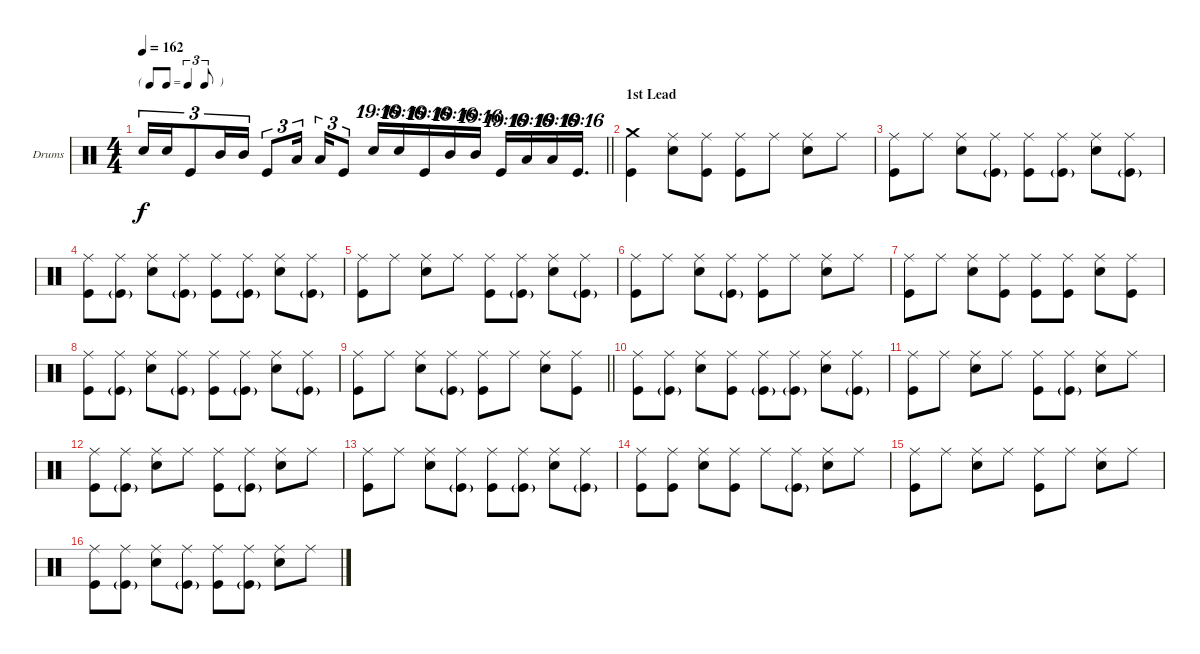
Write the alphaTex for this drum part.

\bracketExtendMode groupsimilarinstruments
\firstSystemTrackNameOrientation horizontal
\otherSystemsTrackNameOrientation horizontal
\track ("Drumkit" "Drums") {instrument percussion}
\staff {score}
\articulation defaults
\ts (4 4)
\tf triplet8th
\tempo 162
\clef neutral
\barLineRight lightlight
\ks c "Snare (hit) 2".16{tu (3 2) dy f} "Snare (hit) 2".16{tu (3 2)} "Kick (hit)".8{tu (3 2)} "Mid Tom (hit)".16{tu (3 2)} "Mid Tom (hit)".16{tu (3 2)} "Kick (hit)".8{tu (3 2)} "Low Tom (hit)".16{tu (3 2)} "Low Tom (hit)".16{tu (3 2)} "Kick (hit)".8{tu (3 2)} "Snare (hit) 2".16{tu (19 16)} "Snare (hit) 2".16{tu (19 16)} "Kick (hit)".16{tu (19 16)} "Mid Tom (hit)".16{tu (19 16)} "Mid Tom (hit)".16{tu (19 16)} "Kick (hit)".16{tu (19 16)} "Low Tom (hit)".16{tu (19 16)} "Low Tom (hit)".16{tu (19 16)} "Kick (hit)".16{d tu (19 16)}
|
\section ("" "1st Lead")
("Kick (hit)" "Crash medium (hit)").4 ("Snare (hit) 2" "Ride (middle)").8 ("Kick (hit)" "Ride (middle)").8 ("Kick (hit)" "Ride (middle)").8 "Ride (middle)".8 ("Snare (hit) 2" "Ride (middle)").8 "Ride (middle)".8 |
("Kick (hit)" "Ride (middle)").8 "Ride (middle)".8 ("Snare (hit) 2" "Ride (middle)").8 ("Kick (hit)"{g} "Ride (middle)").8 ("Kick (hit)" "Ride (middle)").8 ("Kick (hit)"{g} "Ride (middle)").8 ("Snare (hit) 2" "Ride (middle)").8 ("Kick (hit)"{g} "Ride (middle)").8 |
("Kick (hit)" "Ride (middle)").8 ("Kick (hit)"{g} "Ride (middle)").8 ("Snare (hit) 2" "Ride (middle)").8 ("Kick (hit)"{g} "Ride (middle)").8 ("Kick (hit)" "Ride (middle)").8 ("Kick (hit)"{g} "Ride (middle)").8 ("Snare (hit) 2" "Ride (middle)").8 ("Kick (hit)"{g} "Ride (middle)").8 |
("Kick (hit)" "Ride (middle)").8 "Ride (middle)".8 ("Snare (hit) 2" "Ride (middle)").8 "Ride (middle)".8 ("Kick (hit)" "Ride (middle)").8 ("Kick (hit)"{g} "Ride (middle)").8 ("Snare (hit) 2" "Ride (middle)").8 ("Kick (hit)"{g} "Ride (middle)").8 |
("Kick (hit)" "Ride (middle)").8 "Ride (middle)".8 ("Snare (hit) 2" "Ride (middle)").8 ("Kick (hit)"{g} "Ride (middle)").8 ("Kick (hit)" "Ride (middle)").8 "Ride (middle)".8 ("Snare (hit) 2" "Ride (middle)").8 "Ride (middle)".8 |
("Kick (hit)" "Ride (middle)").8 "Ride (middle)".8 ("Snare (hit) 2" "Ride (middle)").8 ("Kick (hit)" "Ride (middle)").8 ("Kick (hit)" "Ride (middle)").8 ("Kick (hit)" "Ride (middle)").8 ("Snare (hit) 2" "Ride (middle)").8 ("Kick (hit)" "Ride (middle)").8 |
("Kick (hit)" "Ride (middle)").8 ("Kick (hit)"{g} "Ride (middle)").8 ("Snare (hit) 2" "Ride (middle)").8 ("Kick (hit)"{g} "Ride (middle)").8 ("Kick (hit)" "Ride (middle)").8 ("Kick (hit)"{g} "Ride (middle)").8 ("Snare (hit) 2" "Ride (middle)").8 ("Kick (hit)"{g} "Ride (middle)").8 |
\barLineRight lightlight
("Kick (hit)" "Ride (middle)").8 "Ride (middle)".8 ("Snare (hit) 2" "Ride (middle)").8 ("Kick (hit)"{g} "Ride (middle)").8 ("Kick (hit)" "Ride (middle)").8 "Ride (middle)".8 ("Snare (hit) 2" "Ride (middle)").8 ("Kick (hit)" "Ride (middle)").8 |
("Kick (hit)" "Ride (middle)").8 ("Kick (hit)"{g} "Ride (middle)").8 ("Snare (hit) 2" "Ride (middle)").8 ("Kick (hit)" "Ride (middle)").8 ("Kick (hit)"{g} "Ride (middle)").8 ("Kick (hit)"{g} "Ride (middle)").8 ("Snare (hit) 2" "Ride (middle)").8 ("Kick (hit)"{g} "Ride (middle)").8 |
("Kick (hit)" "Ride (middle)").8 "Ride (middle)".8 ("Snare (hit) 2" "Ride (middle)").8 "Ride (middle)".8 ("Kick (hit)" "Ride (middle)").8 ("Kick (hit)"{g} "Ride (middle)").8 ("Snare (hit) 2" "Ride (middle)").8 "Ride (middle)".8 |
("Kick (hit)" "Ride (middle)").8 ("Kick (hit)"{g} "Ride (middle)").8 ("Snare (hit) 2" "Ride (middle)").8 "Ride (middle)".8 ("Kick (hit)" "Ride (middle)").8 ("Kick (hit)"{g} "Ride (middle)").8 ("Snare (hit) 2" "Ride (middle)").8 "Ride (middle)".8 |
("Kick (hit)" "Ride (middle)").8 "Ride (middle)".8 ("Snare (hit) 2" "Ride (middle)").8 ("Kick (hit)"{g} "Ride (middle)").8 ("Kick (hit)" "Ride (middle)").8 ("Kick (hit)"{g} "Ride (middle)").8 ("Snare (hit) 2" "Ride (middle)").8 ("Kick (hit)"{g} "Ride (middle)").8 |
("Kick (hit)" "Ride (middle)").8 ("Kick (hit)" "Ride (middle)").8 ("Snare (hit) 2" "Ride (middle)").8 ("Kick (hit)" "Ride (middle)").8 "Ride (middle)".8 ("Kick (hit)"{g} "Ride (middle)").8 ("Snare (hit) 2" "Ride (middle)").8 "Ride (middle)".8 |
("Kick (hit)" "Ride (middle)").8 "Ride (middle)".8 ("Snare (hit) 2" "Ride (middle)").8 "Ride (middle)".8 ("Kick (hit)" "Ride (middle)").8 "Ride (middle)".8 ("Snare (hit) 2" "Ride (middle)").8 "Ride (middle)".8 |
("Kick (hit)" "Ride (middle)").8 ("Kick (hit)"{g} "Ride (middle)").8 ("Snare (hit) 2" "Ride (middle)").8 ("Kick (hit)"{g} "Ride (middle)").8 ("Kick (hit)" "Ride (middle)").8 ("Kick (hit)"{g} "Ride (middle)").8 ("Snare (hit) 2" "Ride (middle)").8 "Ride (middle)".8
